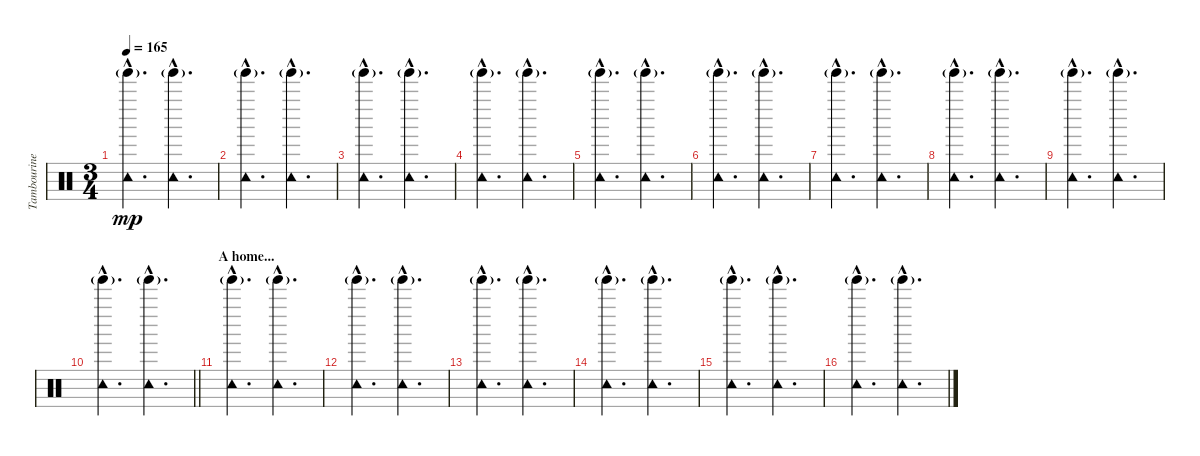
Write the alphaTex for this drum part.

\track ("Tambourine" "Tambourine") {instrument percussion}
\staff {score}
\articulation defaults
\ts (3 4)
\tempo 165
\clef neutral
\ks c
("Tambourine (hit)"{hac} "Tinkle Bell (hit)"{g}).4{d dy mp} ("Tambourine (hit)"{hac} "Tinkle Bell (hit)"{g}).4{d} |
("Tambourine (hit)"{hac} "Tinkle Bell (hit)"{g}).4{d} ("Tambourine (hit)"{hac} "Tinkle Bell (hit)"{g}).4{d} |
("Tambourine (hit)"{hac} "Tinkle Bell (hit)"{g}).4{d} ("Tambourine (hit)"{hac} "Tinkle Bell (hit)"{g}).4{d} |
("Tambourine (hit)"{hac} "Tinkle Bell (hit)"{g}).4{d} ("Tambourine (hit)"{hac} "Tinkle Bell (hit)"{g}).4{d} |
("Tambourine (hit)"{hac} "Tinkle Bell (hit)"{g}).4{d} ("Tambourine (hit)"{hac} "Tinkle Bell (hit)"{g}).4{d} |
("Tambourine (hit)"{hac} "Tinkle Bell (hit)"{g}).4{d} ("Tambourine (hit)"{hac} "Tinkle Bell (hit)"{g}).4{d} |
("Tambourine (hit)"{hac} "Tinkle Bell (hit)"{g}).4{d} ("Tambourine (hit)"{hac} "Tinkle Bell (hit)"{g}).4{d} |
("Tambourine (hit)"{hac} "Tinkle Bell (hit)"{g}).4{d} ("Tambourine (hit)"{hac} "Tinkle Bell (hit)"{g}).4{d} |
("Tambourine (hit)"{hac} "Tinkle Bell (hit)"{g}).4{d} ("Tambourine (hit)"{hac} "Tinkle Bell (hit)"{g}).4{d} |
\barLineRight lightlight
("Tambourine (hit)"{hac} "Tinkle Bell (hit)"{g}).4{d} ("Tambourine (hit)"{hac} "Tinkle Bell (hit)"{g}).4{d} |
\section ("" "A home...")
("Tambourine (hit)"{hac} "Tinkle Bell (hit)"{g}).4{d} ("Tambourine (hit)"{hac} "Tinkle Bell (hit)"{g}).4{d} |
("Tambourine (hit)"{hac} "Tinkle Bell (hit)"{g}).4{d} ("Tambourine (hit)"{hac} "Tinkle Bell (hit)"{g}).4{d} |
("Tambourine (hit)"{hac} "Tinkle Bell (hit)"{g}).4{d} ("Tambourine (hit)"{hac} "Tinkle Bell (hit)"{g}).4{d} |
("Tambourine (hit)"{hac} "Tinkle Bell (hit)"{g}).4{d} ("Tambourine (hit)"{hac} "Tinkle Bell (hit)"{g}).4{d} |
("Tambourine (hit)"{hac} "Tinkle Bell (hit)"{g}).4{d} ("Tambourine (hit)"{hac} "Tinkle Bell (hit)"{g}).4{d} |
("Tambourine (hit)"{hac} "Tinkle Bell (hit)"{g}).4{d} ("Tambourine (hit)"{hac} "Tinkle Bell (hit)"{g}).4{d}
